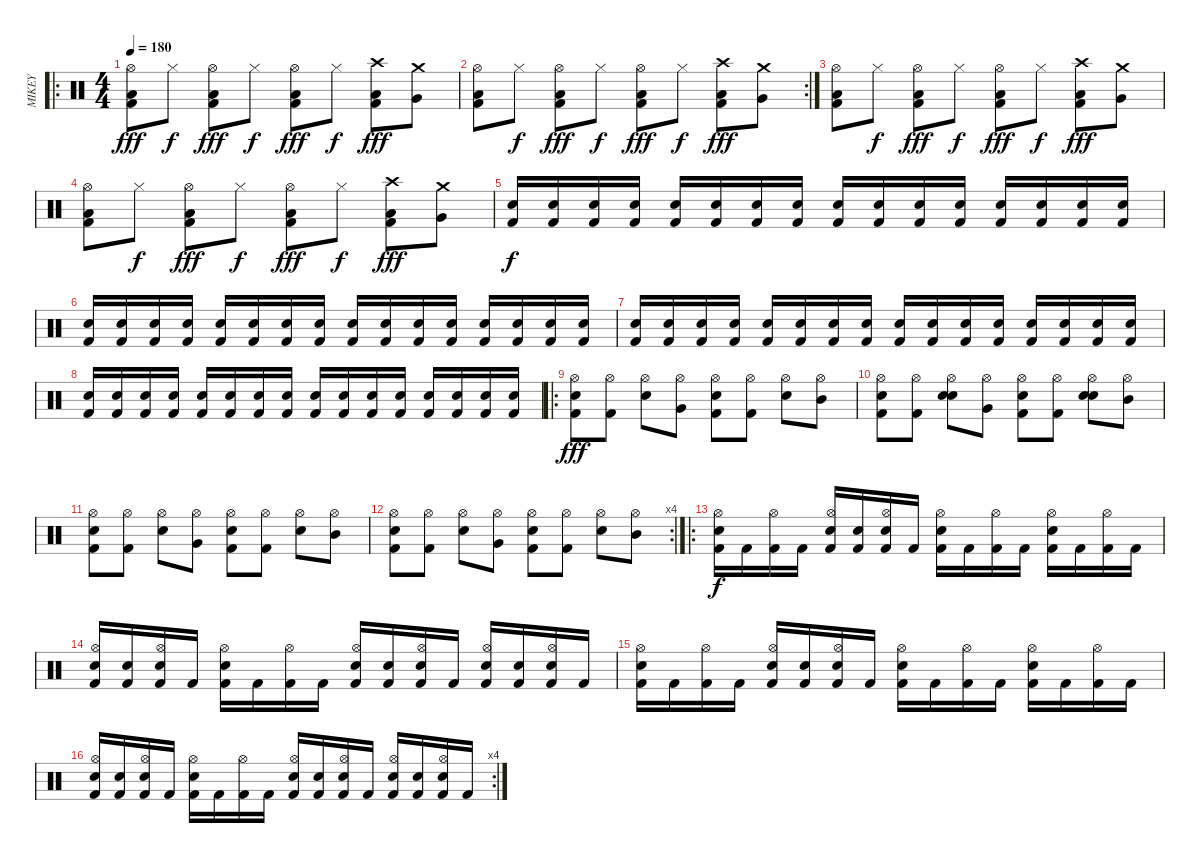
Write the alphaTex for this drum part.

\track ("MIKEY" "MIKEY") {instrument percussion}
\staff {score}
\articulation defaults
\ro
\ts (4 4)
\tempo 180
\clef neutral
\ks c
("Low Floor Tom (hit)" "Kick (hit) 2" "Hi-Hat (open)").8{dy fff} "Hi-Hat (closed)".8{dy f} ("Low Floor Tom (hit)" "Kick (hit) 2" "Hi-Hat (open)").8{dy fff} "Hi-Hat (closed)".8{dy f} ("Low Floor Tom (hit)" "Kick (hit) 2" "Hi-Hat (open)").8{dy fff} "Hi-Hat (closed)".8{dy f} ("Low Floor Tom (hit)" "Kick (hit) 2" "Crash high (hit)").8{dy fff} ("Very Low Tom (hit)" "Crash medium (hit)").8 |
\rc 2
("Low Floor Tom (hit)" "Kick (hit) 2" "Hi-Hat (open)").8 "Hi-Hat (closed)".8{dy f} ("Low Floor Tom (hit)" "Kick (hit) 2" "Hi-Hat (open)").8{dy fff} "Hi-Hat (closed)".8{dy f} ("Low Floor Tom (hit)" "Kick (hit) 2" "Hi-Hat (open)").8{dy fff} "Hi-Hat (closed)".8{dy f} ("Low Floor Tom (hit)" "Kick (hit) 2" "Crash high (hit)").8{dy fff} ("Very Low Tom (hit)" "Crash medium (hit)").8 |
("Low Floor Tom (hit)" "Kick (hit) 2" "Hi-Hat (open)").8 "Hi-Hat (closed)".8{dy f} ("Low Floor Tom (hit)" "Kick (hit) 2" "Hi-Hat (open)").8{dy fff} "Hi-Hat (closed)".8{dy f} ("Low Floor Tom (hit)" "Kick (hit) 2" "Hi-Hat (open)").8{dy fff} "Hi-Hat (closed)".8{dy f} ("Low Floor Tom (hit)" "Kick (hit) 2" "Crash high (hit)").8{dy fff} ("Very Low Tom (hit)" "Crash medium (hit)").8 |
("Low Floor Tom (hit)" "Kick (hit) 2" "Hi-Hat (open)").8 "Hi-Hat (closed)".8{dy f} ("Low Floor Tom (hit)" "Kick (hit) 2" "Hi-Hat (open)").8{dy fff} "Hi-Hat (closed)".8{dy f} ("Low Floor Tom (hit)" "Kick (hit) 2" "Hi-Hat (open)").8{dy fff} "Hi-Hat (closed)".8{dy f} ("Low Floor Tom (hit)" "Kick (hit) 2" "Crash high (hit)").8{dy fff} ("Very Low Tom (hit)" "Crash medium (hit)").8 |
("Kick (hit) 2" "Electric Snare (hit)").16{dy f} ("Kick (hit) 2" "Electric Snare (hit)").16 ("Kick (hit) 2" "Electric Snare (hit)").16 ("Kick (hit) 2" "Electric Snare (hit)").16 ("Kick (hit) 2" "Electric Snare (hit)").16 ("Kick (hit) 2" "Electric Snare (hit)").16 ("Kick (hit) 2" "Electric Snare (hit)").16 ("Kick (hit) 2" "Electric Snare (hit)").16 ("Kick (hit) 2" "Electric Snare (hit)").16 ("Kick (hit) 2" "Electric Snare (hit)").16 ("Kick (hit) 2" "Electric Snare (hit)").16 ("Kick (hit) 2" "Electric Snare (hit)").16 ("Kick (hit) 2" "Electric Snare (hit)").16 ("Kick (hit) 2" "Electric Snare (hit)").16 ("Kick (hit) 2" "Electric Snare (hit)").16 ("Kick (hit) 2" "Electric Snare (hit)").16 |
("Kick (hit) 2" "Electric Snare (hit)").16 ("Kick (hit) 2" "Electric Snare (hit)").16 ("Kick (hit) 2" "Electric Snare (hit)").16 ("Kick (hit) 2" "Electric Snare (hit)").16 ("Kick (hit) 2" "Electric Snare (hit)").16 ("Kick (hit) 2" "Electric Snare (hit)").16 ("Kick (hit) 2" "Electric Snare (hit)").16 ("Kick (hit) 2" "Electric Snare (hit)").16 ("Kick (hit) 2" "Electric Snare (hit)").16 ("Kick (hit) 2" "Electric Snare (hit)").16 ("Kick (hit) 2" "Electric Snare (hit)").16 ("Kick (hit) 2" "Electric Snare (hit)").16 ("Kick (hit) 2" "Electric Snare (hit)").16 ("Kick (hit) 2" "Electric Snare (hit)").16 ("Kick (hit) 2" "Electric Snare (hit)").16 ("Kick (hit) 2" "Electric Snare (hit)").16 |
("Kick (hit) 2" "Electric Snare (hit)").16 ("Kick (hit) 2" "Electric Snare (hit)").16 ("Kick (hit) 2" "Electric Snare (hit)").16 ("Kick (hit) 2" "Electric Snare (hit)").16 ("Kick (hit) 2" "Electric Snare (hit)").16 ("Kick (hit) 2" "Electric Snare (hit)").16 ("Kick (hit) 2" "Electric Snare (hit)").16 ("Kick (hit) 2" "Electric Snare (hit)").16 ("Kick (hit) 2" "Electric Snare (hit)").16 ("Kick (hit) 2" "Electric Snare (hit)").16 ("Kick (hit) 2" "Electric Snare (hit)").16 ("Kick (hit) 2" "Electric Snare (hit)").16 ("Kick (hit) 2" "Electric Snare (hit)").16 ("Kick (hit) 2" "Electric Snare (hit)").16 ("Kick (hit) 2" "Electric Snare (hit)").16 ("Kick (hit) 2" "Electric Snare (hit)").16 |
("Kick (hit) 2" "Electric Snare (hit)").16 ("Kick (hit) 2" "Electric Snare (hit)").16 ("Kick (hit) 2" "Electric Snare (hit)").16 ("Kick (hit) 2" "Electric Snare (hit)").16 ("Kick (hit) 2" "Electric Snare (hit)").16 ("Kick (hit) 2" "Electric Snare (hit)").16 ("Kick (hit) 2" "Electric Snare (hit)").16 ("Kick (hit) 2" "Electric Snare (hit)").16 ("Kick (hit) 2" "Electric Snare (hit)").16 ("Kick (hit) 2" "Electric Snare (hit)").16 ("Kick (hit) 2" "Electric Snare (hit)").16 ("Kick (hit) 2" "Electric Snare (hit)").16 ("Kick (hit) 2" "Electric Snare (hit)").16 ("Kick (hit) 2" "Electric Snare (hit)").16 ("Kick (hit) 2" "Electric Snare (hit)").16 ("Kick (hit) 2" "Electric Snare (hit)").16 |
\ro
("Electric Snare (hit)" "Hi-Hat (open)" "Kick (hit) 2").8{dy fff} ("Hi-Hat (open)" "Kick (hit) 2").8 ("Hi-Hat (open)" "Snare (hit) 2").8 ("Hi-Hat (open)" "Very Low Tom (hit)").8 ("Electric Snare (hit)" "Hi-Hat (open)" "Kick (hit) 2").8 ("Hi-Hat (open)" "Kick (hit) 2").8 ("Hi-Hat (open)" "Snare (hit) 2").8 ("Hi-Hat (open)" "Mid Tom (hit)").8 |
("Electric Snare (hit)" "Hi-Hat (open)" "Kick (hit) 2").8 ("Hi-Hat (open)" "Kick (hit) 2").8 ("Electric Snare (hit)" "Hi-Hat (open)" "Snare (hit) 2").8 ("Hi-Hat (open)" "Very Low Tom (hit)").8 ("Electric Snare (hit)" "Hi-Hat (open)" "Kick (hit) 2").8 ("Hi-Hat (open)" "Kick (hit) 2").8 ("Electric Snare (hit)" "Hi-Hat (open)" "Snare (hit) 2").8 ("Hi-Hat (open)" "Mid Tom (hit)").8 |
("Electric Snare (hit)" "Hi-Hat (open)" "Kick (hit) 2").8 ("Hi-Hat (open)" "Kick (hit) 2").8 ("Hi-Hat (open)" "Snare (hit) 2").8 ("Hi-Hat (open)" "Very Low Tom (hit)").8 ("Electric Snare (hit)" "Hi-Hat (open)" "Kick (hit) 2").8 ("Hi-Hat (open)" "Kick (hit) 2").8 ("Hi-Hat (open)" "Snare (hit) 2").8 ("Hi-Hat (open)" "Mid Tom (hit)").8 |
\rc 4
("Electric Snare (hit)" "Hi-Hat (open)" "Kick (hit) 2").8 ("Hi-Hat (open)" "Kick (hit) 2").8 ("Hi-Hat (open)" "Snare (hit) 2").8 ("Hi-Hat (open)" "Very Low Tom (hit)").8 ("Electric Snare (hit)" "Hi-Hat (open)" "Kick (hit) 2").8 ("Hi-Hat (open)" "Kick (hit) 2").8 ("Hi-Hat (open)" "Snare (hit) 2").8 ("Hi-Hat (open)" "Mid Tom (hit)").8 |
\ro
("Hi-Hat (open)" "Snare (hit) 2" "Kick (hit) 2").16{dy f} "Kick (hit) 2".16 ("Hi-Hat (open)" "Kick (hit) 2").16 "Kick (hit) 2".16 ("Hi-Hat (open)" "Snare (hit) 2" "Kick (hit) 2").16 ("Snare (hit) 2" "Kick (hit) 2").16 ("Hi-Hat (open)" "Snare (hit) 2" "Kick (hit) 2").16 "Kick (hit) 2".16 ("Hi-Hat (open)" "Snare (hit) 2" "Kick (hit) 2").16 "Kick (hit) 2".16 ("Hi-Hat (open)" "Kick (hit) 2").16 "Kick (hit) 2".16 ("Hi-Hat (open)" "Snare (hit) 2" "Kick (hit) 2").16 "Kick (hit) 2".16 ("Hi-Hat (open)" "Kick (hit) 2").16 "Kick (hit) 2".16 |
("Hi-Hat (open)" "Snare (hit) 2" "Kick (hit) 2").16 ("Snare (hit) 2" "Kick (hit) 2").16 ("Hi-Hat (open)" "Snare (hit) 2" "Kick (hit) 2").16 "Kick (hit) 2".16 ("Hi-Hat (open)" "Snare (hit) 2" "Kick (hit) 2").16 "Kick (hit) 2".16 ("Hi-Hat (open)" "Kick (hit) 2").16 "Kick (hit) 2".16 ("Hi-Hat (open)" "Snare (hit) 2" "Kick (hit) 2").16 ("Snare (hit) 2" "Kick (hit) 2").16 ("Hi-Hat (open)" "Snare (hit) 2" "Kick (hit) 2").16 "Kick (hit) 2".16 ("Hi-Hat (open)" "Snare (hit) 2" "Kick (hit) 2").16 ("Snare (hit) 2" "Kick (hit) 2").16 ("Hi-Hat (open)" "Snare (hit) 2" "Kick (hit) 2").16 "Kick (hit) 2".16 |
("Hi-Hat (open)" "Snare (hit) 2" "Kick (hit) 2").16 "Kick (hit) 2".16 ("Hi-Hat (open)" "Kick (hit) 2").16 "Kick (hit) 2".16 ("Hi-Hat (open)" "Snare (hit) 2" "Kick (hit) 2").16 ("Snare (hit) 2" "Kick (hit) 2").16 ("Hi-Hat (open)" "Snare (hit) 2" "Kick (hit) 2").16 "Kick (hit) 2".16 ("Hi-Hat (open)" "Snare (hit) 2" "Kick (hit) 2").16 "Kick (hit) 2".16 ("Hi-Hat (open)" "Kick (hit) 2").16 "Kick (hit) 2".16 ("Hi-Hat (open)" "Snare (hit) 2" "Kick (hit) 2").16 "Kick (hit) 2".16 ("Hi-Hat (open)" "Kick (hit) 2").16 "Kick (hit) 2".16 |
\rc 4
("Hi-Hat (open)" "Snare (hit) 2" "Kick (hit) 2").16 ("Snare (hit) 2" "Kick (hit) 2").16 ("Hi-Hat (open)" "Snare (hit) 2" "Kick (hit) 2").16 "Kick (hit) 2".16 ("Hi-Hat (open)" "Snare (hit) 2" "Kick (hit) 2").16 "Kick (hit) 2".16 ("Hi-Hat (open)" "Kick (hit) 2").16 "Kick (hit) 2".16 ("Hi-Hat (open)" "Snare (hit) 2" "Kick (hit) 2").16 ("Snare (hit) 2" "Kick (hit) 2").16 ("Hi-Hat (open)" "Snare (hit) 2" "Kick (hit) 2").16 "Kick (hit) 2".16 ("Hi-Hat (open)" "Snare (hit) 2" "Kick (hit) 2").16 ("Snare (hit) 2" "Kick (hit) 2").16 ("Hi-Hat (open)" "Snare (hit) 2" "Kick (hit) 2").16 "Kick (hit) 2".16
